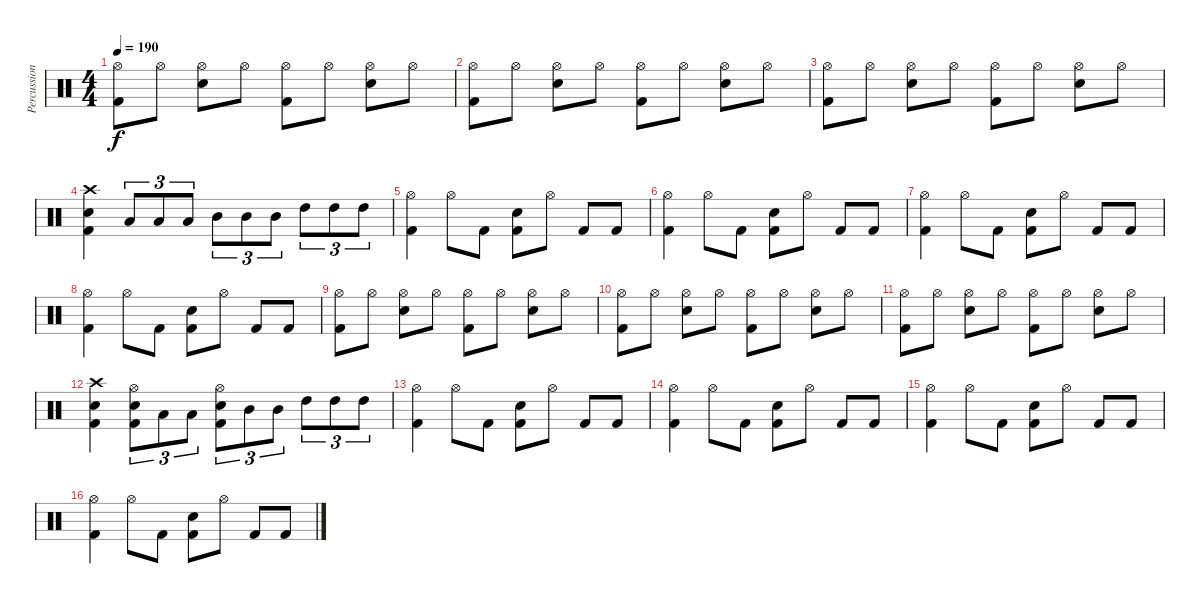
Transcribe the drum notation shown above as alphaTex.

\track ("Percussions" "Percussion") {instrument percussion}
\staff {score}
\articulation defaults
\ts (4 4)
\tempo 190
\clef neutral
\ks c
("Hi-Hat (open)" "Kick (hit) 2").8{dy f} "Hi-Hat (open)".8 ("Hi-Hat (open)" "Snare (hit) 2").8 "Hi-Hat (open)".8 ("Hi-Hat (open)" "Kick (hit) 2").8 "Hi-Hat (open)".8 ("Hi-Hat (open)" "Snare (hit) 2").8 "Hi-Hat (open)".8 |
("Hi-Hat (open)" "Kick (hit) 2").8 "Hi-Hat (open)".8 ("Hi-Hat (open)" "Snare (hit) 2").8 "Hi-Hat (open)".8 ("Hi-Hat (open)" "Kick (hit) 2").8 "Hi-Hat (open)".8 ("Hi-Hat (open)" "Snare (hit) 2").8 "Hi-Hat (open)".8 |
("Hi-Hat (open)" "Kick (hit) 2").8 "Hi-Hat (open)".8 ("Hi-Hat (open)" "Snare (hit) 2").8 "Hi-Hat (open)".8 ("Hi-Hat (open)" "Kick (hit) 2").8 "Hi-Hat (open)".8 ("Hi-Hat (open)" "Snare (hit) 2").8 "Hi-Hat (open)".8 |
("Crash high (hit)" "Snare (hit) 2" "Kick (hit) 2").4 "Low Tom (hit)".8{tu (3 2)} "Low Tom (hit)".8{tu (3 2)} "Low Tom (hit)".8{tu (3 2)} "Mid Tom (hit)".8{tu (3 2)} "Mid Tom (hit)".8{tu (3 2)} "Mid Tom (hit)".8{tu (3 2)} "High Tom (hit)".8{tu (3 2)} "High Tom (hit)".8{tu (3 2)} "High Tom (hit)".8{tu (3 2)} |
("Hi-Hat (open)" "Kick (hit) 2").4 "Hi-Hat (open)".8 "Kick (hit) 2".8 ("Snare (hit) 2" "Kick (hit) 2").8 "Hi-Hat (open)".8 "Kick (hit) 2".8 "Kick (hit) 2".8 |
("Hi-Hat (open)" "Kick (hit) 2").4 "Hi-Hat (open)".8 "Kick (hit) 2".8 ("Snare (hit) 2" "Kick (hit) 2").8 "Hi-Hat (open)".8 "Kick (hit) 2".8 "Kick (hit) 2".8 |
("Hi-Hat (open)" "Kick (hit) 2").4 "Hi-Hat (open)".8 "Kick (hit) 2".8 ("Snare (hit) 2" "Kick (hit) 2").8 "Hi-Hat (open)".8 "Kick (hit) 2".8 "Kick (hit) 2".8 |
("Hi-Hat (open)" "Kick (hit) 2").4 "Hi-Hat (open)".8 "Kick (hit) 2".8 ("Snare (hit) 2" "Kick (hit) 2").8 "Hi-Hat (open)".8 "Kick (hit) 2".8 "Kick (hit) 2".8 |
("Hi-Hat (open)" "Kick (hit) 2").8 "Hi-Hat (open)".8 ("Hi-Hat (open)" "Snare (hit) 2").8 "Hi-Hat (open)".8 ("Hi-Hat (open)" "Kick (hit) 2").8 "Hi-Hat (open)".8 ("Hi-Hat (open)" "Snare (hit) 2").8 "Hi-Hat (open)".8 |
("Hi-Hat (open)" "Kick (hit) 2").8 "Hi-Hat (open)".8 ("Hi-Hat (open)" "Snare (hit) 2").8 "Hi-Hat (open)".8 ("Hi-Hat (open)" "Kick (hit) 2").8 "Hi-Hat (open)".8 ("Hi-Hat (open)" "Snare (hit) 2").8 "Hi-Hat (open)".8 |
("Hi-Hat (open)" "Kick (hit) 2").8 "Hi-Hat (open)".8 ("Hi-Hat (open)" "Snare (hit) 2").8 "Hi-Hat (open)".8 ("Hi-Hat (open)" "Kick (hit) 2").8 "Hi-Hat (open)".8 ("Hi-Hat (open)" "Snare (hit) 2").8 "Hi-Hat (open)".8 |
("Crash high (hit)" "Snare (hit) 2" "Kick (hit) 2").4 ("Hi-Hat (open)" "Snare (hit) 2" "Kick (hit) 2").8{tu (3 2)} "Low Tom (hit)".8{tu (3 2)} "Low Tom (hit)".8{tu (3 2)} ("Hi-Hat (open)" "Snare (hit) 2" "Kick (hit) 2").8{tu (3 2)} "Mid Tom (hit)".8{tu (3 2)} "Mid Tom (hit)".8{tu (3 2)} "High Tom (hit)".8{tu (3 2)} "High Tom (hit)".8{tu (3 2)} "High Tom (hit)".8{tu (3 2)} |
("Hi-Hat (open)" "Kick (hit) 2").4 "Hi-Hat (open)".8 "Kick (hit) 2".8 ("Electric Snare (hit)" "Kick (hit) 2").8 "Hi-Hat (open)".8 "Kick (hit) 2".8 "Kick (hit) 2".8 |
("Hi-Hat (open)" "Kick (hit) 2").4 "Hi-Hat (open)".8 "Kick (hit) 2".8 ("Electric Snare (hit)" "Kick (hit) 2").8 "Hi-Hat (open)".8 "Kick (hit) 2".8 "Kick (hit) 2".8 |
("Hi-Hat (open)" "Kick (hit) 2").4 "Hi-Hat (open)".8 "Kick (hit) 2".8 ("Snare (hit) 2" "Kick (hit) 2").8 "Hi-Hat (open)".8 "Kick (hit) 2".8 "Kick (hit) 2".8 |
("Hi-Hat (open)" "Kick (hit) 2").4 "Hi-Hat (open)".8 "Kick (hit) 2".8 ("Snare (hit) 2" "Kick (hit) 2").8 "Hi-Hat (open)".8 "Kick (hit) 2".8 "Kick (hit) 2".8
